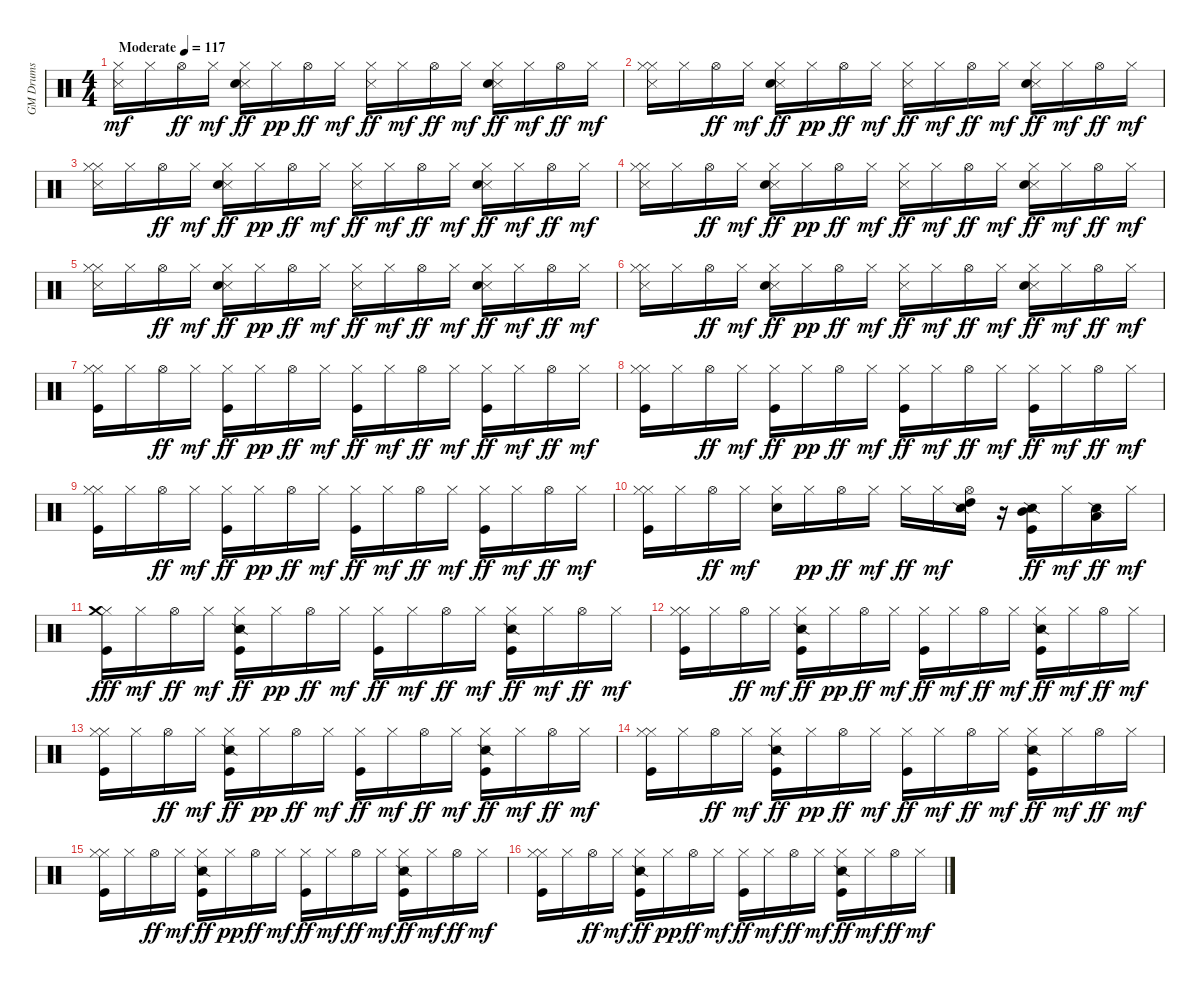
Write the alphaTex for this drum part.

\track ("GM Drums" "GM Drums") {instrument percussion}
\staff {score}
\articulation defaults
\ts (4 4)
\tempo (117 "Moderate")
\clef neutral
\ks c
("Metronome (hit)" "Hi-Hat (closed)").16{dy mf} "Hi-Hat (closed)".16 "Hi-Hat (open)".16{dy ff} "Hi-Hat (closed)".16{dy mf} ("Metronome (hit)" "Hi-Hat (closed)" "Snare (hit)").16{dy ff} "Hi-Hat (closed)".16{dy pp} "Hi-Hat (open)".16{dy ff} "Hi-Hat (closed)".16{dy mf} ("Metronome (hit)" "Hi-Hat (closed)").16{dy ff} "Hi-Hat (closed)".16{dy mf} "Hi-Hat (open)".16{dy ff} "Hi-Hat (closed)".16{dy mf} ("Metronome (hit)" "Hi-Hat (closed)" "Snare (hit)").16{dy ff} "Hi-Hat (closed)".16{dy mf} "Hi-Hat (open)".16{dy ff} "Hi-Hat (closed)".16{dy mf} |
("Hi-Hat (closed)" "Metronome (hit)" "Hi-Hat (closed)").16 "Hi-Hat (closed)".16 "Hi-Hat (open)".16{dy ff} "Hi-Hat (closed)".16{dy mf} ("Metronome (hit)" "Hi-Hat (closed)" "Snare (hit)").16{dy ff} "Hi-Hat (closed)".16{dy pp} "Hi-Hat (open)".16{dy ff} "Hi-Hat (closed)".16{dy mf} ("Metronome (hit)" "Hi-Hat (closed)").16{dy ff} "Hi-Hat (closed)".16{dy mf} "Hi-Hat (open)".16{dy ff} "Hi-Hat (closed)".16{dy mf} ("Metronome (hit)" "Hi-Hat (closed)" "Snare (hit)").16{dy ff} "Hi-Hat (closed)".16{dy mf} "Hi-Hat (open)".16{dy ff} "Hi-Hat (closed)".16{dy mf} |
("Hi-Hat (closed)" "Metronome (hit)" "Hi-Hat (closed)").16 "Hi-Hat (closed)".16 "Hi-Hat (open)".16{dy ff} "Hi-Hat (closed)".16{dy mf} ("Metronome (hit)" "Hi-Hat (closed)" "Snare (hit)").16{dy ff} "Hi-Hat (closed)".16{dy pp} "Hi-Hat (open)".16{dy ff} "Hi-Hat (closed)".16{dy mf} ("Metronome (hit)" "Hi-Hat (closed)").16{dy ff} "Hi-Hat (closed)".16{dy mf} "Hi-Hat (open)".16{dy ff} "Hi-Hat (closed)".16{dy mf} ("Metronome (hit)" "Hi-Hat (closed)" "Snare (hit)").16{dy ff} "Hi-Hat (closed)".16{dy mf} "Hi-Hat (open)".16{dy ff} "Hi-Hat (closed)".16{dy mf} |
("Hi-Hat (closed)" "Metronome (hit)" "Hi-Hat (closed)").16 "Hi-Hat (closed)".16 "Hi-Hat (open)".16{dy ff} "Hi-Hat (closed)".16{dy mf} ("Metronome (hit)" "Hi-Hat (closed)" "Snare (hit)").16{dy ff} "Hi-Hat (closed)".16{dy pp} "Hi-Hat (open)".16{dy ff} "Hi-Hat (closed)".16{dy mf} ("Metronome (hit)" "Hi-Hat (closed)").16{dy ff} "Hi-Hat (closed)".16{dy mf} "Hi-Hat (open)".16{dy ff} "Hi-Hat (closed)".16{dy mf} ("Metronome (hit)" "Hi-Hat (closed)" "Snare (hit)").16{dy ff} "Hi-Hat (closed)".16{dy mf} "Hi-Hat (open)".16{dy ff} "Hi-Hat (closed)".16{dy mf} |
("Hi-Hat (closed)" "Metronome (hit)" "Hi-Hat (closed)").16 "Hi-Hat (closed)".16 "Hi-Hat (open)".16{dy ff} "Hi-Hat (closed)".16{dy mf} ("Metronome (hit)" "Hi-Hat (closed)" "Snare (hit)").16{dy ff} "Hi-Hat (closed)".16{dy pp} "Hi-Hat (open)".16{dy ff} "Hi-Hat (closed)".16{dy mf} ("Metronome (hit)" "Hi-Hat (closed)").16{dy ff} "Hi-Hat (closed)".16{dy mf} "Hi-Hat (open)".16{dy ff} "Hi-Hat (closed)".16{dy mf} ("Metronome (hit)" "Hi-Hat (closed)" "Snare (hit)").16{dy ff} "Hi-Hat (closed)".16{dy mf} "Hi-Hat (open)".16{dy ff} "Hi-Hat (closed)".16{dy mf} |
("Hi-Hat (closed)" "Metronome (hit)" "Hi-Hat (closed)").16 "Hi-Hat (closed)".16 "Hi-Hat (open)".16{dy ff} "Hi-Hat (closed)".16{dy mf} ("Metronome (hit)" "Hi-Hat (closed)" "Snare (hit)").16{dy ff} "Hi-Hat (closed)".16{dy pp} "Hi-Hat (open)".16{dy ff} "Hi-Hat (closed)".16{dy mf} ("Metronome (hit)" "Hi-Hat (closed)").16{dy ff} "Hi-Hat (closed)".16{dy mf} "Hi-Hat (open)".16{dy ff} "Hi-Hat (closed)".16{dy mf} ("Metronome (hit)" "Hi-Hat (closed)" "Snare (hit)").16{dy ff} "Hi-Hat (closed)".16{dy mf} "Hi-Hat (open)".16{dy ff} "Hi-Hat (closed)".16{dy mf} |
("Hi-Hat (closed)" "Kick (hit)" "Hi-Hat (closed)").16 "Hi-Hat (closed)".16 "Hi-Hat (open)".16{dy ff} "Hi-Hat (closed)".16{dy mf} ("Kick (hit)" "Hi-Hat (closed)").16{dy ff} "Hi-Hat (closed)".16{dy pp} "Hi-Hat (open)".16{dy ff} "Hi-Hat (closed)".16{dy mf} ("Kick (hit)" "Hi-Hat (closed)").16{dy ff} "Hi-Hat (closed)".16{dy mf} "Hi-Hat (open)".16{dy ff} "Hi-Hat (closed)".16{dy mf} ("Kick (hit)" "Hi-Hat (closed)").16{dy ff} "Hi-Hat (closed)".16{dy mf} "Hi-Hat (open)".16{dy ff} "Hi-Hat (closed)".16{dy mf} |
("Hi-Hat (closed)" "Kick (hit)" "Hi-Hat (closed)").16 "Hi-Hat (closed)".16 "Hi-Hat (open)".16{dy ff} "Hi-Hat (closed)".16{dy mf} ("Kick (hit)" "Hi-Hat (closed)").16{dy ff} "Hi-Hat (closed)".16{dy pp} "Hi-Hat (open)".16{dy ff} "Hi-Hat (closed)".16{dy mf} ("Kick (hit)" "Hi-Hat (closed)").16{dy ff} "Hi-Hat (closed)".16{dy mf} "Hi-Hat (open)".16{dy ff} "Hi-Hat (closed)".16{dy mf} ("Kick (hit)" "Hi-Hat (closed)").16{dy ff} "Hi-Hat (closed)".16{dy mf} "Hi-Hat (open)".16{dy ff} "Hi-Hat (closed)".16{dy mf} |
("Hi-Hat (closed)" "Kick (hit)" "Hi-Hat (closed)").16 "Hi-Hat (closed)".16 "Hi-Hat (open)".16{dy ff} "Hi-Hat (closed)".16{dy mf} ("Kick (hit)" "Hi-Hat (closed)").16{dy ff} "Hi-Hat (closed)".16{dy pp} "Hi-Hat (open)".16{dy ff} "Hi-Hat (closed)".16{dy mf} ("Kick (hit)" "Hi-Hat (closed)").16{dy ff} "Hi-Hat (closed)".16{dy mf} "Hi-Hat (open)".16{dy ff} "Hi-Hat (closed)".16{dy mf} ("Kick (hit)" "Hi-Hat (closed)").16{dy ff} "Hi-Hat (closed)".16{dy mf} "Hi-Hat (open)".16{dy ff} "Hi-Hat (closed)".16{dy mf} |
("Hi-Hat (closed)" "Kick (hit)" "Hi-Hat (closed)").16 "Hi-Hat (closed)".16 "Hi-Hat (open)".16{dy ff} "Hi-Hat (closed)".16{dy mf} ("Hi-Hat (closed)" "Electric Snare (hit)").16 "Hi-Hat (closed)".16{dy pp} "Hi-Hat (open)".16{dy ff} "Hi-Hat (closed)".16{dy mf} "Hi-Hat (closed)".16{dy ff} "Hi-Hat (closed)".16{dy mf} ("Snare (side stick) 2" "Hi-Hat (open)" "High Tom (hit)").16 r.16 ("Kick (hit)" "Snare (side stick) 2" "Mid Tom (hit)").16{dy ff} "Hi-Hat (closed)".16{dy mf} ("Snare (side stick) 2" "Low Tom (hit)").16{dy ff} "Hi-Hat (closed)".16{dy mf} |
("Kick (hit)" "Hi-Hat (closed)" "Crash medium (hit)").16{dy fff} "Hi-Hat (closed)".16{dy mf} "Hi-Hat (open)".16{dy ff} "Hi-Hat (closed)".16{dy mf} ("Kick (hit)" "Hi-Hat (closed)" "Snare (side stick) 2").16{dy ff} "Hi-Hat (closed)".16{dy pp} "Hi-Hat (open)".16{dy ff} "Hi-Hat (closed)".16{dy mf} ("Kick (hit)" "Hi-Hat (closed)").16{dy ff} "Hi-Hat (closed)".16{dy mf} "Hi-Hat (open)".16{dy ff} "Hi-Hat (closed)".16{dy mf} ("Kick (hit)" "Hi-Hat (closed)" "Snare (side stick) 2").16{dy ff} "Hi-Hat (closed)".16{dy mf} "Hi-Hat (open)".16{dy ff} "Hi-Hat (closed)".16{dy mf} |
("Hi-Hat (closed)" "Kick (hit)" "Hi-Hat (closed)").16 "Hi-Hat (closed)".16 "Hi-Hat (open)".16{dy ff} "Hi-Hat (closed)".16{dy mf} ("Kick (hit)" "Hi-Hat (closed)" "Snare (side stick) 2").16{dy ff} "Hi-Hat (closed)".16{dy pp} "Hi-Hat (open)".16{dy ff} "Hi-Hat (closed)".16{dy mf} ("Kick (hit)" "Hi-Hat (closed)").16{dy ff} "Hi-Hat (closed)".16{dy mf} "Hi-Hat (open)".16{dy ff} "Hi-Hat (closed)".16{dy mf} ("Kick (hit)" "Hi-Hat (closed)" "Snare (side stick) 2").16{dy ff} "Hi-Hat (closed)".16{dy mf} "Hi-Hat (open)".16{dy ff} "Hi-Hat (closed)".16{dy mf} |
("Hi-Hat (closed)" "Kick (hit)" "Hi-Hat (closed)").16 "Hi-Hat (closed)".16 "Hi-Hat (open)".16{dy ff} "Hi-Hat (closed)".16{dy mf} ("Kick (hit)" "Hi-Hat (closed)" "Snare (side stick) 2").16{dy ff} "Hi-Hat (closed)".16{dy pp} "Hi-Hat (open)".16{dy ff} "Hi-Hat (closed)".16{dy mf} ("Kick (hit)" "Hi-Hat (closed)").16{dy ff} "Hi-Hat (closed)".16{dy mf} "Hi-Hat (open)".16{dy ff} "Hi-Hat (closed)".16{dy mf} ("Kick (hit)" "Hi-Hat (closed)" "Snare (side stick) 2").16{dy ff} "Hi-Hat (closed)".16{dy mf} "Hi-Hat (open)".16{dy ff} "Hi-Hat (closed)".16{dy mf} |
("Hi-Hat (closed)" "Kick (hit)" "Hi-Hat (closed)").16 "Hi-Hat (closed)".16 "Hi-Hat (open)".16{dy ff} "Hi-Hat (closed)".16{dy mf} ("Kick (hit)" "Hi-Hat (closed)" "Snare (side stick) 2").16{dy ff} "Hi-Hat (closed)".16{dy pp} "Hi-Hat (open)".16{dy ff} "Hi-Hat (closed)".16{dy mf} ("Kick (hit)" "Hi-Hat (closed)").16{dy ff} "Hi-Hat (closed)".16{dy mf} "Hi-Hat (open)".16{dy ff} "Hi-Hat (closed)".16{dy mf} ("Kick (hit)" "Hi-Hat (closed)" "Snare (side stick) 2").16{dy ff} "Hi-Hat (closed)".16{dy mf} "Hi-Hat (open)".16{dy ff} "Hi-Hat (closed)".16{dy mf} |
("Hi-Hat (closed)" "Kick (hit)" "Hi-Hat (closed)").16 "Hi-Hat (closed)".16 "Hi-Hat (open)".16{dy ff} "Hi-Hat (closed)".16{dy mf} ("Kick (hit)" "Hi-Hat (closed)" "Snare (side stick) 2").16{dy ff} "Hi-Hat (closed)".16{dy pp} "Hi-Hat (open)".16{dy ff} "Hi-Hat (closed)".16{dy mf} ("Kick (hit)" "Hi-Hat (closed)").16{dy ff} "Hi-Hat (closed)".16{dy mf} "Hi-Hat (open)".16{dy ff} "Hi-Hat (closed)".16{dy mf} ("Kick (hit)" "Hi-Hat (closed)" "Snare (side stick) 2").16{dy ff} "Hi-Hat (closed)".16{dy mf} "Hi-Hat (open)".16{dy ff} "Hi-Hat (closed)".16{dy mf} |
("Hi-Hat (closed)" "Kick (hit)" "Hi-Hat (closed)").16 "Hi-Hat (closed)".16 "Hi-Hat (open)".16{dy ff} "Hi-Hat (closed)".16{dy mf} ("Kick (hit)" "Hi-Hat (closed)" "Snare (side stick) 2").16{dy ff} "Hi-Hat (closed)".16{dy pp} "Hi-Hat (open)".16{dy ff} "Hi-Hat (closed)".16{dy mf} ("Kick (hit)" "Hi-Hat (closed)").16{dy ff} "Hi-Hat (closed)".16{dy mf} "Hi-Hat (open)".16{dy ff} "Hi-Hat (closed)".16{dy mf} ("Kick (hit)" "Hi-Hat (closed)" "Snare (side stick) 2").16{dy ff} "Hi-Hat (closed)".16{dy mf} "Hi-Hat (open)".16{dy ff} "Hi-Hat (closed)".16{dy mf}
